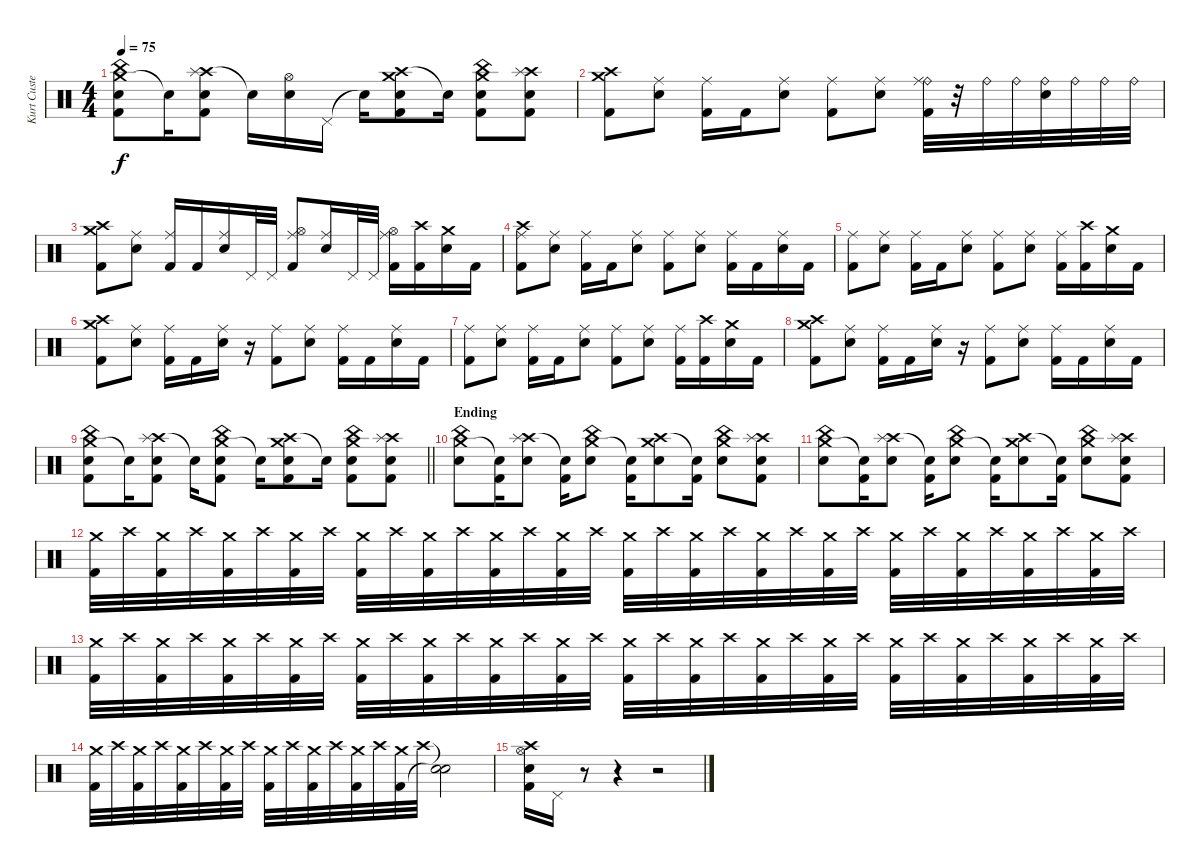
\track ("Kurt Custer - Drums and Percussion" "Kurt Custe") {instrument percussion}
\staff
\articulation defaults
\ts (4 4)
\tempo 75
\clef neutral
\ks c
("Crash medium (hit)" "China (hit)" "Snare (hit) 2" "Kick (hit) 2").8{dy f} "Snare (hit)"{t}.16 ("Crash high (hit)" "Splash (hit)" "Snare (hit) 2" "Kick (hit) 2").8 "Snare (hit)"{t}.16 ("Snare (hit) 2" "Hi-Hat (open)").16 "Pedal Hi-Hat (hit)".16 "Snare (hit)"{t}.16 ("Crash high (hit)" "Crash medium (hit)" "Snare (hit) 2" "Kick (hit) 2").8 "Snare (hit)"{t}.16 ("Crash medium (hit)" "China (hit)" "Snare (hit) 2" "Kick (hit) 2").8 ("Crash high (hit)" "Splash (hit)" "Snare (hit) 2" "Kick (hit) 2").8 |
("Crash medium (hit)" "Crash high (hit)" "Kick (hit) 2").8 ("Ride (middle)" "Snare (hit) 2").8 ("Ride (middle)" "Kick (hit) 2").16 "Kick (hit) 2".16 ("Ride (middle)" "Snare (hit) 2").8 ("Ride (middle)" "Kick (hit) 2").8 ("Ride (middle)" "Snare (hit) 2").8 ("Ride (bell)" "Ride (middle)" "Kick (hit) 2").32 r.32 "Ride (bell)".32 "Ride (bell)".32 ("Ride (bell)" "Snare (hit) 2").32 "Ride (bell)".32 "Ride (bell)".32 "Ride (bell)".32 |
("Crash medium (hit)" "Crash high (hit)" "Kick (hit) 2").8 ("Ride (middle)" "Snare (hit) 2").8 ("Ride (middle)" "Kick (hit) 2").16 "Kick (hit) 2".16 ("Ride (middle)" "Snare (hit) 2").16 "Pedal Hi-Hat (hit)".32 "Pedal Hi-Hat (hit)".32 ("Ride (middle)" "Hi-Hat (open)" "Kick (hit) 2").8 ("Ride (middle)" "Snare (hit) 2").16 "Pedal Hi-Hat (hit)".32 "Pedal Hi-Hat (hit)".32 ("Ride (middle)" "Hi-Hat (open)" "Kick (hit) 2").16 ("Crash high (hit)" "Kick (hit) 2").16 ("Crash medium (hit)" "Snare (hit) 2").16 "Kick (hit) 2".16 |
("Crash high (hit)" "Ride (middle)" "Kick (hit) 2").8 ("Ride (middle)" "Snare (hit) 2").8 ("Ride (middle)" "Kick (hit) 2").16 "Kick (hit) 2".16 ("Ride (middle)" "Snare (hit) 2").8 ("Ride (middle)" "Kick (hit) 2").8 ("Ride (middle)" "Snare (hit) 2").8 ("Ride (middle)" "Kick (hit) 2").16 "Kick (hit) 2".16 ("Ride (middle)" "Snare (hit) 2").16 "Kick (hit) 2".16 |
("Ride (middle)" "Kick (hit) 2").8 ("Ride (middle)" "Snare (hit) 2").8 ("Ride (middle)" "Kick (hit) 2").16 "Kick (hit) 2".16 ("Ride (middle)" "Snare (hit) 2").8 ("Ride (middle)" "Kick (hit) 2").8 ("Ride (middle)" "Snare (hit) 2").8 ("Ride (middle)" "Kick (hit) 2").16 ("Crash high (hit)" "Kick (hit) 2").16 ("Crash medium (hit)" "Snare (hit) 2").16 "Kick (hit) 2".16 |
("Crash medium (hit)" "Crash high (hit)" "Kick (hit) 2").8 ("Ride (middle)" "Snare (hit) 2").8 ("Ride (middle)" "Kick (hit) 2").16 "Kick (hit) 2".16 ("Ride (middle)" "Snare (hit) 2").16 r.16 ("Ride (middle)" "Kick (hit) 2").8 ("Ride (middle)" "Snare (hit) 2").8 ("Ride (middle)" "Kick (hit) 2").16 "Kick (hit) 2".16 ("Ride (middle)" "Snare (hit) 2").16 "Kick (hit) 2".16 |
("Ride (middle)" "Kick (hit) 2").8 ("Ride (middle)" "Snare (hit) 2").8 ("Ride (middle)" "Kick (hit) 2").16 "Kick (hit) 2".16 ("Ride (middle)" "Snare (hit) 2").8 ("Ride (middle)" "Kick (hit) 2").8 ("Ride (middle)" "Snare (hit) 2").8 ("Ride (middle)" "Kick (hit) 2").16 ("Crash high (hit)" "Kick (hit) 2").16 ("Crash medium (hit)" "Snare (hit) 2").16 "Kick (hit) 2".16 |
("Crash medium (hit)" "Crash high (hit)" "Kick (hit) 2").8 ("Ride (middle)" "Snare (hit) 2").8 ("Ride (middle)" "Kick (hit) 2").16 "Kick (hit) 2".16 ("Ride (middle)" "Snare (hit) 2").16 r.16 ("Ride (middle)" "Kick (hit) 2").8 ("Ride (middle)" "Snare (hit) 2").8 ("Ride (middle)" "Kick (hit) 2").16 "Kick (hit) 2".16 ("Ride (middle)" "Snare (hit) 2").16 "Kick (hit) 2".16 |
\barLineRight lightlight
("Crash medium (hit)" "China (hit)" "Snare (hit) 2" "Kick (hit) 2").8 "Snare (hit)"{t}.16 ("Crash high (hit)" "Splash (hit)" "Snare (hit) 2" "Kick (hit) 2").8 "Snare (hit)"{t}.16 ("Crash medium (hit)" "China (hit)" "Snare (hit) 2" "Kick (hit) 2").8 "Snare (hit)"{t}.16 ("Crash high (hit)" "Crash medium (hit)" "Snare (hit) 2" "Kick (hit) 2").8 "Snare (hit)"{t}.16 ("Crash medium (hit)" "China (hit)" "Snare (hit) 2" "Kick (hit) 2").8 ("Crash high (hit)" "Splash (hit)" "Snare (hit) 2" "Kick (hit) 2").8 |
\section ("" "Ending")
("Crash medium (hit)" "China (hit)" "Snare (hit) 2").8 ("Snare (hit)"{t} "Kick (hit) 2").16 ("Crash high (hit)" "Splash (hit)" "Snare (hit) 2").8 ("Snare (hit)"{t} "Kick (hit) 2").16 ("Crash medium (hit)" "China (hit)" "Snare (hit) 2").8 ("Snare (hit)"{t} "Kick (hit) 2").16 ("Crash high (hit)" "Crash medium (hit)" "Snare (hit) 2").8 ("Snare (hit)"{t} "Kick (hit) 2").16 ("Crash medium (hit)" "China (hit)" "Snare (hit) 2").8 ("Crash high (hit)" "Splash (hit)" "Snare (hit) 2" "Kick (hit) 2").8 |
("Crash medium (hit)" "China (hit)" "Snare (hit) 2").8 ("Snare (hit)"{t} "Kick (hit) 2").16 ("Crash high (hit)" "Splash (hit)" "Snare (hit) 2").8 ("Snare (hit)"{t} "Kick (hit) 2").16 ("Crash medium (hit)" "China (hit)" "Snare (hit) 2").8 ("Snare (hit)"{t} "Kick (hit) 2").16 ("Crash high (hit)" "Crash medium (hit)" "Snare (hit) 2").8 ("Snare (hit)"{t} "Kick (hit) 2").16 ("Crash medium (hit)" "China (hit)" "Snare (hit) 2").8 ("Crash high (hit)" "Splash (hit)" "Snare (hit) 2" "Kick (hit) 2").8 |
("Crash medium (hit)" "Kick (hit) 2").32 "Crash high (hit)".32 ("Crash medium (hit)" "Kick (hit) 2").32 "Crash high (hit)".32 ("Crash medium (hit)" "Kick (hit) 2").32 "Crash high (hit)".32 ("Crash medium (hit)" "Kick (hit) 2").32 "Crash high (hit)".32 ("Crash medium (hit)" "Kick (hit) 2").32 "Crash high (hit)".32 ("Crash medium (hit)" "Kick (hit) 2").32 "Crash high (hit)".32 ("Crash medium (hit)" "Kick (hit) 2").32 "Crash high (hit)".32 ("Crash medium (hit)" "Kick (hit) 2").32 "Crash high (hit)".32 ("Crash medium (hit)" "Kick (hit) 2").32 "Crash high (hit)".32 ("Crash medium (hit)" "Kick (hit) 2").32 "Crash high (hit)".32 ("Crash medium (hit)" "Kick (hit) 2").32 "Crash high (hit)".32 ("Crash medium (hit)" "Kick (hit) 2").32 "Crash high (hit)".32 ("Crash medium (hit)" "Kick (hit) 2").32 "Crash high (hit)".32 ("Crash medium (hit)" "Kick (hit) 2").32 "Crash high (hit)".32 ("Crash medium (hit)" "Kick (hit) 2").32 "Crash high (hit)".32 ("Crash medium (hit)" "Kick (hit) 2").32 "Crash high (hit)".32 |
("Crash medium (hit)" "Kick (hit) 2").32 "Crash high (hit)".32 ("Crash medium (hit)" "Kick (hit) 2").32 "Crash high (hit)".32 ("Crash medium (hit)" "Kick (hit) 2").32 "Crash high (hit)".32 ("Crash medium (hit)" "Kick (hit) 2").32 "Crash high (hit)".32 ("Crash medium (hit)" "Kick (hit) 2").32 "Crash high (hit)".32 ("Crash medium (hit)" "Kick (hit) 2").32 "Crash high (hit)".32 ("Crash medium (hit)" "Kick (hit) 2").32 "Crash high (hit)".32 ("Crash medium (hit)" "Kick (hit) 2").32 "Crash high (hit)".32 ("Crash medium (hit)" "Kick (hit) 2").32 "Crash high (hit)".32 ("Crash medium (hit)" "Kick (hit) 2").32 "Crash high (hit)".32 ("Crash medium (hit)" "Kick (hit) 2").32 "Crash high (hit)".32 ("Crash medium (hit)" "Kick (hit) 2").32 "Crash high (hit)".32 ("Crash medium (hit)" "Kick (hit) 2").32 "Crash high (hit)".32 ("Crash medium (hit)" "Kick (hit) 2").32 "Crash high (hit)".32 ("Crash medium (hit)" "Kick (hit) 2").32 "Crash high (hit)".32 ("Crash medium (hit)" "Kick (hit) 2").32 "Crash high (hit)".32 |
("Crash medium (hit)" "Kick (hit) 2").32 "Crash high (hit)".32 ("Crash medium (hit)" "Kick (hit) 2").32 "Crash high (hit)".32 ("Crash medium (hit)" "Kick (hit) 2").32 "Crash high (hit)".32 ("Crash medium (hit)" "Kick (hit) 2").32 "Crash high (hit)".32 ("Crash medium (hit)" "Kick (hit) 2").32 "Crash high (hit)".32 ("Crash medium (hit)" "Kick (hit) 2").32 "Crash high (hit)".32 ("Crash medium (hit)" "Kick (hit) 2").32 "Crash high (hit)".32 ("Crash medium (hit)" "Kick (hit) 2").32 "Crash high (hit)".32 ("Snare (hit)"{t} "Snare (hit)"{t}).2 |
("Crash high (hit)" "Snare (hit) 2" "Hi-Hat (open)" "Kick (hit) 2").16 "Pedal Hi-Hat (hit)".16 r.8 r.4 r.2
